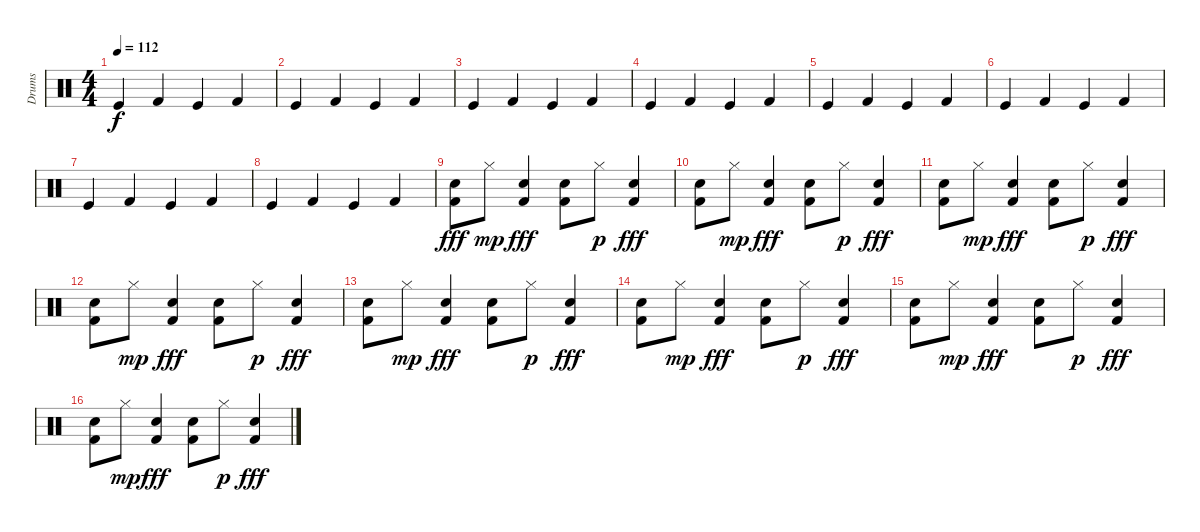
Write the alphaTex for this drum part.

\track ("Drums" "Drums") {instrument percussion}
\staff {score}
\articulation defaults
\ts (4 4)
\tempo 112
\clef neutral
\ks c "Kick (hit)".4{dy f} "Kick (hit) 2".4 "Kick (hit)".4 "Kick (hit) 2".4
|
"Kick (hit)".4 "Kick (hit) 2".4 "Kick (hit)".4 "Kick (hit) 2".4 |
"Kick (hit)".4 "Kick (hit) 2".4 "Kick (hit)".4 "Kick (hit) 2".4 |
"Kick (hit)".4 "Kick (hit) 2".4 "Kick (hit)".4 "Kick (hit) 2".4 |
"Kick (hit)".4 "Kick (hit) 2".4 "Kick (hit)".4 "Kick (hit) 2".4 |
"Kick (hit)".4 "Kick (hit) 2".4 "Kick (hit)".4 "Kick (hit) 2".4 |
"Kick (hit)".4 "Kick (hit) 2".4 "Kick (hit)".4 "Kick (hit) 2".4 |
"Kick (hit)".4 "Kick (hit) 2".4 "Kick (hit)".4 "Kick (hit) 2".4 |
("Electric Snare (hit)" "Kick (hit) 2").8{dy fff} "Hi-Hat (closed)".8{dy mp} ("Electric Snare (hit)" "Kick (hit) 2").4{dy fff} ("Electric Snare (hit)" "Kick (hit) 2").8 "Hi-Hat (closed)".8{dy p} ("Electric Snare (hit)" "Kick (hit) 2").4{dy fff} |
("Electric Snare (hit)" "Kick (hit) 2").8 "Hi-Hat (closed)".8{dy mp} ("Electric Snare (hit)" "Kick (hit) 2").4{dy fff} ("Electric Snare (hit)" "Kick (hit) 2").8 "Hi-Hat (closed)".8{dy p} ("Electric Snare (hit)" "Kick (hit) 2").4{dy fff} |
("Electric Snare (hit)" "Kick (hit) 2").8 "Hi-Hat (closed)".8{dy mp} ("Electric Snare (hit)" "Kick (hit) 2").4{dy fff} ("Electric Snare (hit)" "Kick (hit) 2").8 "Hi-Hat (closed)".8{dy p} ("Electric Snare (hit)" "Kick (hit) 2").4{dy fff} |
("Electric Snare (hit)" "Kick (hit) 2").8 "Hi-Hat (closed)".8{dy mp} ("Electric Snare (hit)" "Kick (hit) 2").4{dy fff} ("Electric Snare (hit)" "Kick (hit) 2").8 "Hi-Hat (closed)".8{dy p} ("Electric Snare (hit)" "Kick (hit) 2").4{dy fff} |
("Electric Snare (hit)" "Kick (hit) 2").8 "Hi-Hat (closed)".8{dy mp} ("Electric Snare (hit)" "Kick (hit) 2").4{dy fff} ("Electric Snare (hit)" "Kick (hit) 2").8 "Hi-Hat (closed)".8{dy p} ("Electric Snare (hit)" "Kick (hit) 2").4{dy fff} |
("Electric Snare (hit)" "Kick (hit) 2").8 "Hi-Hat (closed)".8{dy mp} ("Electric Snare (hit)" "Kick (hit) 2").4{dy fff} ("Electric Snare (hit)" "Kick (hit) 2").8 "Hi-Hat (closed)".8{dy p} ("Electric Snare (hit)" "Kick (hit) 2").4{dy fff} |
("Electric Snare (hit)" "Kick (hit) 2").8 "Hi-Hat (closed)".8{dy mp} ("Electric Snare (hit)" "Kick (hit) 2").4{dy fff} ("Electric Snare (hit)" "Kick (hit) 2").8 "Hi-Hat (closed)".8{dy p} ("Electric Snare (hit)" "Kick (hit) 2").4{dy fff} |
("Electric Snare (hit)" "Kick (hit) 2").8 "Hi-Hat (closed)".8{dy mp} ("Electric Snare (hit)" "Kick (hit) 2").4{dy fff} ("Electric Snare (hit)" "Kick (hit) 2").8 "Hi-Hat (closed)".8{dy p} ("Electric Snare (hit)" "Kick (hit) 2").4{dy fff}
